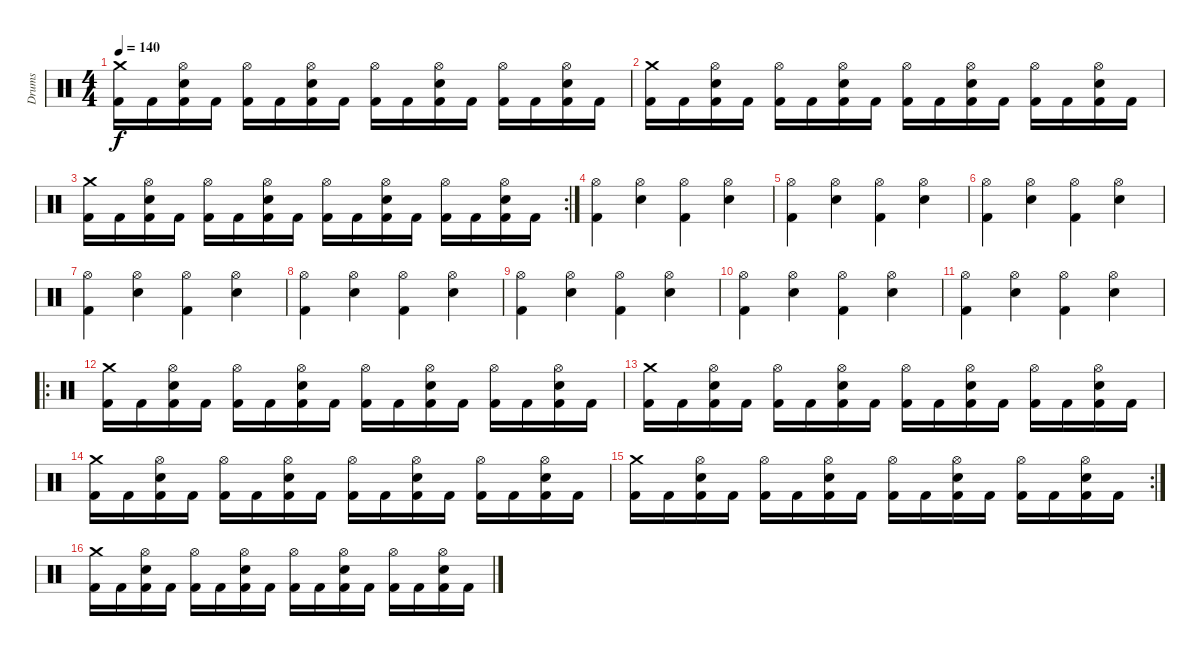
\track ("Drums" "Drums") {instrument percussion}
\staff {score}
\articulation defaults
\ts (4 4)
\tempo 140
\clef neutral
\ks c
("Crash medium (hit)" "Kick (hit) 2").16{dy f} "Kick (hit) 2".16 ("Hi-Hat (open)" "Electric Snare (hit)" "Kick (hit) 2").16 "Kick (hit) 2".16 ("Hi-Hat (open)" "Kick (hit) 2").16 "Kick (hit) 2".16 ("Hi-Hat (open)" "Electric Snare (hit)" "Kick (hit) 2").16 "Kick (hit) 2".16 ("Hi-Hat (open)" "Kick (hit) 2").16 "Kick (hit) 2".16 ("Hi-Hat (open)" "Electric Snare (hit)" "Kick (hit) 2").16 "Kick (hit) 2".16 ("Hi-Hat (open)" "Kick (hit) 2").16 "Kick (hit) 2".16 ("Hi-Hat (open)" "Electric Snare (hit)" "Kick (hit) 2").16 "Kick (hit) 2".16 |
("Crash medium (hit)" "Kick (hit) 2").16 "Kick (hit) 2".16 ("Hi-Hat (open)" "Electric Snare (hit)" "Kick (hit) 2").16 "Kick (hit) 2".16 ("Hi-Hat (open)" "Kick (hit) 2").16 "Kick (hit) 2".16 ("Hi-Hat (open)" "Electric Snare (hit)" "Kick (hit) 2").16 "Kick (hit) 2".16 ("Hi-Hat (open)" "Kick (hit) 2").16 "Kick (hit) 2".16 ("Hi-Hat (open)" "Electric Snare (hit)" "Kick (hit) 2").16 "Kick (hit) 2".16 ("Hi-Hat (open)" "Kick (hit) 2").16 "Kick (hit) 2".16 ("Hi-Hat (open)" "Electric Snare (hit)" "Kick (hit) 2").16 "Kick (hit) 2".16 |
\rc 2
("Crash medium (hit)" "Kick (hit) 2").16 "Kick (hit) 2".16 ("Hi-Hat (open)" "Electric Snare (hit)" "Kick (hit) 2").16 "Kick (hit) 2".16 ("Hi-Hat (open)" "Kick (hit) 2").16 "Kick (hit) 2".16 ("Hi-Hat (open)" "Electric Snare (hit)" "Kick (hit) 2").16 "Kick (hit) 2".16 ("Hi-Hat (open)" "Kick (hit) 2").16 "Kick (hit) 2".16 ("Hi-Hat (open)" "Electric Snare (hit)" "Kick (hit) 2").16 "Kick (hit) 2".16 ("Hi-Hat (open)" "Kick (hit) 2").16 "Kick (hit) 2".16 ("Hi-Hat (open)" "Electric Snare (hit)" "Kick (hit) 2").16 "Kick (hit) 2".16 |
("Hi-Hat (open)" "Kick (hit) 2").4 ("Hi-Hat (open)" "Electric Snare (hit)").4 ("Hi-Hat (open)" "Kick (hit) 2").4 ("Hi-Hat (open)" "Electric Snare (hit)").4 |
("Hi-Hat (open)" "Kick (hit) 2").4 ("Hi-Hat (open)" "Electric Snare (hit)").4 ("Hi-Hat (open)" "Kick (hit) 2").4 ("Hi-Hat (open)" "Electric Snare (hit)").4 |
("Hi-Hat (open)" "Kick (hit) 2").4 ("Hi-Hat (open)" "Electric Snare (hit)").4 ("Hi-Hat (open)" "Kick (hit) 2").4 ("Hi-Hat (open)" "Electric Snare (hit)").4 |
("Hi-Hat (open)" "Kick (hit) 2").4 ("Hi-Hat (open)" "Electric Snare (hit)").4 ("Hi-Hat (open)" "Kick (hit) 2").4 ("Hi-Hat (open)" "Electric Snare (hit)").4 |
("Hi-Hat (open)" "Kick (hit) 2").4 ("Hi-Hat (open)" "Electric Snare (hit)").4 ("Hi-Hat (open)" "Kick (hit) 2").4 ("Hi-Hat (open)" "Electric Snare (hit)").4 |
("Hi-Hat (open)" "Kick (hit) 2").4 ("Hi-Hat (open)" "Electric Snare (hit)").4 ("Hi-Hat (open)" "Kick (hit) 2").4 ("Hi-Hat (open)" "Electric Snare (hit)").4 |
("Hi-Hat (open)" "Kick (hit) 2").4 ("Hi-Hat (open)" "Electric Snare (hit)").4 ("Hi-Hat (open)" "Kick (hit) 2").4 ("Hi-Hat (open)" "Electric Snare (hit)").4 |
("Hi-Hat (open)" "Kick (hit) 2").4 ("Hi-Hat (open)" "Electric Snare (hit)").4 ("Hi-Hat (open)" "Kick (hit) 2").4 ("Hi-Hat (open)" "Electric Snare (hit)").4 |
\ro
("Crash medium (hit)" "Kick (hit) 2").16 "Kick (hit) 2".16 ("Hi-Hat (open)" "Electric Snare (hit)" "Kick (hit) 2").16 "Kick (hit) 2".16 ("Hi-Hat (open)" "Kick (hit) 2").16 "Kick (hit) 2".16 ("Hi-Hat (open)" "Electric Snare (hit)" "Kick (hit) 2").16 "Kick (hit) 2".16 ("Hi-Hat (open)" "Kick (hit) 2").16 "Kick (hit) 2".16 ("Hi-Hat (open)" "Electric Snare (hit)" "Kick (hit) 2").16 "Kick (hit) 2".16 ("Hi-Hat (open)" "Kick (hit) 2").16 "Kick (hit) 2".16 ("Hi-Hat (open)" "Electric Snare (hit)" "Kick (hit) 2").16 "Kick (hit) 2".16 |
("Crash medium (hit)" "Kick (hit) 2").16 "Kick (hit) 2".16 ("Hi-Hat (open)" "Electric Snare (hit)" "Kick (hit) 2").16 "Kick (hit) 2".16 ("Hi-Hat (open)" "Kick (hit) 2").16 "Kick (hit) 2".16 ("Hi-Hat (open)" "Electric Snare (hit)" "Kick (hit) 2").16 "Kick (hit) 2".16 ("Hi-Hat (open)" "Kick (hit) 2").16 "Kick (hit) 2".16 ("Hi-Hat (open)" "Electric Snare (hit)" "Kick (hit) 2").16 "Kick (hit) 2".16 ("Hi-Hat (open)" "Kick (hit) 2").16 "Kick (hit) 2".16 ("Hi-Hat (open)" "Electric Snare (hit)" "Kick (hit) 2").16 "Kick (hit) 2".16 |
("Crash medium (hit)" "Kick (hit) 2").16 "Kick (hit) 2".16 ("Hi-Hat (open)" "Electric Snare (hit)" "Kick (hit) 2").16 "Kick (hit) 2".16 ("Hi-Hat (open)" "Kick (hit) 2").16 "Kick (hit) 2".16 ("Hi-Hat (open)" "Electric Snare (hit)" "Kick (hit) 2").16 "Kick (hit) 2".16 ("Hi-Hat (open)" "Kick (hit) 2").16 "Kick (hit) 2".16 ("Hi-Hat (open)" "Electric Snare (hit)" "Kick (hit) 2").16 "Kick (hit) 2".16 ("Hi-Hat (open)" "Kick (hit) 2").16 "Kick (hit) 2".16 ("Hi-Hat (open)" "Electric Snare (hit)" "Kick (hit) 2").16 "Kick (hit) 2".16 |
\rc 2
("Crash medium (hit)" "Kick (hit) 2").16 "Kick (hit) 2".16 ("Hi-Hat (open)" "Electric Snare (hit)" "Kick (hit) 2").16 "Kick (hit) 2".16 ("Hi-Hat (open)" "Kick (hit) 2").16 "Kick (hit) 2".16 ("Hi-Hat (open)" "Electric Snare (hit)" "Kick (hit) 2").16 "Kick (hit) 2".16 ("Hi-Hat (open)" "Kick (hit) 2").16 "Kick (hit) 2".16 ("Hi-Hat (open)" "Electric Snare (hit)" "Kick (hit) 2").16 "Kick (hit) 2".16 ("Hi-Hat (open)" "Kick (hit) 2").16 "Kick (hit) 2".16 ("Hi-Hat (open)" "Electric Snare (hit)" "Kick (hit) 2").16 "Kick (hit) 2".16 |
("Crash medium (hit)" "Kick (hit) 2").16 "Kick (hit) 2".16 ("Hi-Hat (open)" "Electric Snare (hit)" "Kick (hit) 2").16 "Kick (hit) 2".16 ("Hi-Hat (open)" "Kick (hit) 2").16 "Kick (hit) 2".16 ("Hi-Hat (open)" "Electric Snare (hit)" "Kick (hit) 2").16 "Kick (hit) 2".16 ("Hi-Hat (open)" "Kick (hit) 2").16 "Kick (hit) 2".16 ("Hi-Hat (open)" "Electric Snare (hit)" "Kick (hit) 2").16 "Kick (hit) 2".16 ("Hi-Hat (open)" "Kick (hit) 2").16 "Kick (hit) 2".16 ("Hi-Hat (open)" "Electric Snare (hit)" "Kick (hit) 2").16 "Kick (hit) 2".16
